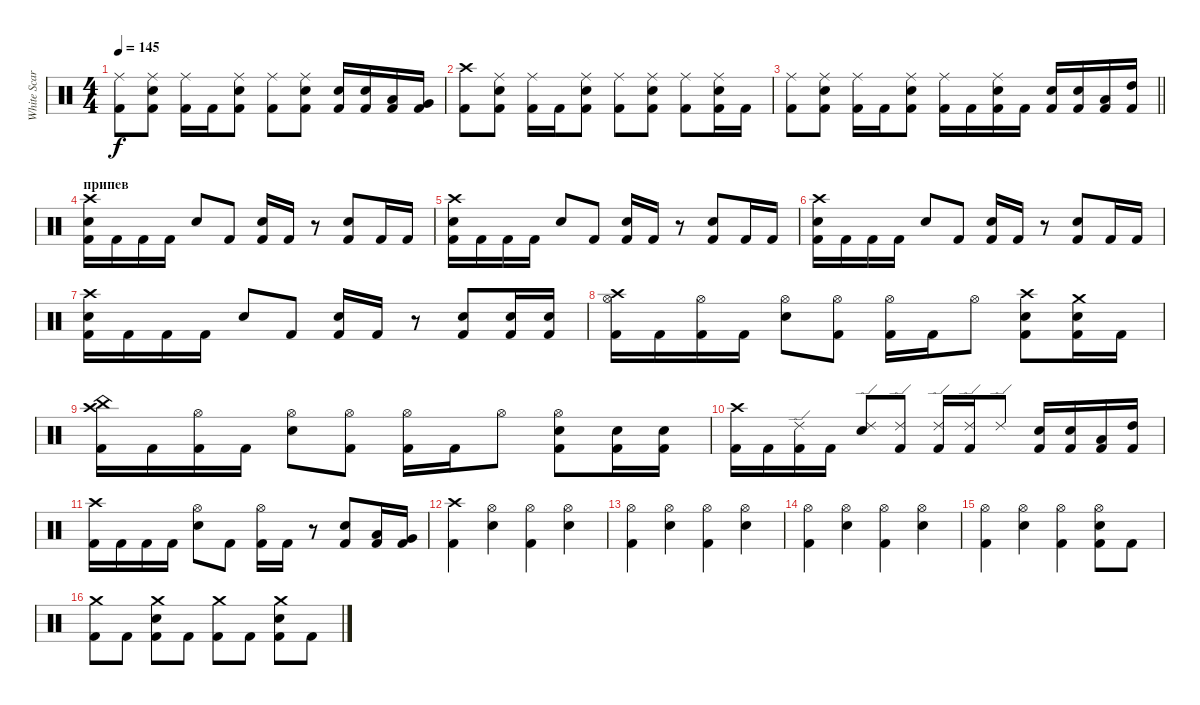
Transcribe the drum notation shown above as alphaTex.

\track ("White Scar" "White Scar") {instrument percussion}
\staff {score}
\articulation defaults
\ts (4 4)
\tempo 145
\clef neutral
\ks c
("Ride (middle)" "Kick (hit) 2").8{dy f} ("Ride (middle)" "Snare (hit) 2" "Kick (hit) 2").8 ("Ride (middle)" "Kick (hit) 2").16 "Kick (hit) 2".16 ("Ride (middle)" "Snare (hit) 2" "Kick (hit) 2").8 ("Ride (middle)" "Kick (hit) 2").8 ("Ride (middle)" "Snare (hit) 2" "Kick (hit) 2").8 ("Snare (hit) 2" "Kick (hit) 2").16 ("Snare (hit) 2" "Kick (hit) 2").16 ("Low Tom (hit)" "Kick (hit) 2").16 ("Very Low Tom (hit)" "Kick (hit) 2").16 |
("Crash high (hit)" "Kick (hit) 2").8 ("Ride (middle)" "Snare (hit) 2" "Kick (hit) 2").8 ("Ride (middle)" "Kick (hit) 2").16 "Kick (hit) 2".16 ("Ride (middle)" "Snare (hit) 2" "Kick (hit) 2").8 ("Ride (middle)" "Kick (hit) 2").8 ("Ride (middle)" "Snare (hit) 2" "Kick (hit) 2").8 ("Ride (middle)" "Kick (hit) 2").8 ("Ride (middle)" "Snare (hit) 2" "Kick (hit) 2").16 "Kick (hit) 2".16 |
\barLineRight lightlight
("Ride (middle)" "Kick (hit) 2").8 ("Ride (middle)" "Snare (hit) 2" "Kick (hit) 2").8 ("Ride (middle)" "Kick (hit) 2").16 "Kick (hit) 2".16 ("Ride (middle)" "Snare (hit) 2" "Kick (hit) 2").8 ("Ride (middle)" "Kick (hit) 2").16 "Kick (hit) 2".16 ("Ride (middle)" "Snare (hit) 2" "Kick (hit) 2").16 "Kick (hit) 2".16 ("Snare (hit) 2" "Kick (hit) 2").16 ("Snare (hit) 2" "Kick (hit) 2").16 ("Low Tom (hit)" "Kick (hit) 2").16 ("High Tom (hit)" "Kick (hit) 2").16 |
\section ("" "припев")
("Crash high (hit)" "Snare (hit) 2" "Kick (hit) 2").16 "Kick (hit) 2".16 "Kick (hit) 2".16 "Kick (hit) 2".16 "Snare (hit) 2".8 "Kick (hit) 2".8 ("Snare (hit) 2" "Kick (hit) 2").16 "Kick (hit) 2".16 r.8 ("Snare (hit) 2" "Kick (hit) 2").8 "Kick (hit) 2".16 "Kick (hit) 2".16 |
("Crash high (hit)" "Snare (hit) 2" "Kick (hit) 2").16 "Kick (hit) 2".16 "Kick (hit) 2".16 "Kick (hit) 2".16 "Snare (hit) 2".8 "Kick (hit) 2".8 ("Snare (hit) 2" "Kick (hit) 2").16 "Kick (hit) 2".16 r.8 ("Snare (hit) 2" "Kick (hit) 2").8 "Kick (hit) 2".16 "Kick (hit) 2".16 |
("Crash high (hit)" "Snare (hit) 2" "Kick (hit) 2").16 "Kick (hit) 2".16 "Kick (hit) 2".16 "Kick (hit) 2".16 "Snare (hit) 2".8 "Kick (hit) 2".8 ("Snare (hit) 2" "Kick (hit) 2").16 "Kick (hit) 2".16 r.8 ("Snare (hit) 2" "Kick (hit) 2").8 "Kick (hit) 2".16 "Kick (hit) 2".16 |
("Crash high (hit)" "Snare (hit) 2" "Kick (hit) 2").16 "Kick (hit) 2".16 "Kick (hit) 2".16 "Kick (hit) 2".16 "Snare (hit) 2".8 "Kick (hit) 2".8 ("Snare (hit) 2" "Kick (hit) 2").16 "Kick (hit) 2".16 r.8 ("Snare (hit) 2" "Kick (hit) 2").8 ("Snare (hit) 2" "Kick (hit) 2").16 ("Snare (hit) 2" "Kick (hit) 2").16 |
("Crash high (hit)" "Hi-Hat (open)" "Kick (hit) 2").16 "Kick (hit) 2".16 ("Hi-Hat (open)" "Kick (hit) 2").16 "Kick (hit) 2".16 ("Snare (hit) 2" "Hi-Hat (open)").8 ("Hi-Hat (open)" "Kick (hit) 2").8 ("Hi-Hat (open)" "Kick (hit) 2").16 "Kick (hit) 2".16 "Hi-Hat (open)".8 ("Snare (hit) 2" "Crash high (hit)" "Kick (hit) 2").8 ("Snare (hit) 2" "Crash medium (hit)" "Kick (hit) 2").16 "Kick (hit) 2".16 |
("Crash high (hit)" "China (hit)" "Kick (hit) 2").16 "Kick (hit) 2".16 ("Hi-Hat (open)" "Kick (hit) 2").16 "Kick (hit) 2".16 ("Snare (hit) 2" "Hi-Hat (open)").8 ("Hi-Hat (open)" "Kick (hit) 2").8 ("Hi-Hat (open)" "Kick (hit) 2").16 "Kick (hit) 2".16 "Hi-Hat (open)".8 ("Snare (hit) 2" "Hi-Hat (open)" "Kick (hit) 2").8 ("Snare (hit) 2" "Kick (hit) 2").16 ("Snare (hit) 2" "Kick (hit) 2").16 |
("Crash high (hit)" "Kick (hit) 2").16 "Kick (hit) 2".16 ("Ride (edge) 2" "Kick (hit) 2").16 "Kick (hit) 2".16 ("Snare (hit) 2" "Ride (edge) 2").8 ("Ride (edge) 2" "Kick (hit) 2").8 ("Ride (edge) 2" "Kick (hit) 2").16 ("Ride (edge) 2" "Kick (hit) 2").16 "Ride (edge) 2".8 ("Snare (hit) 2" "Kick (hit) 2").16 ("Snare (hit) 2" "Kick (hit) 2").16 ("Low Tom (hit)" "Kick (hit) 2").16 ("High Tom (hit)" "Kick (hit) 2").16 |
("Crash high (hit)" "Kick (hit) 2").16 "Kick (hit) 2".16 "Kick (hit) 2".16 "Kick (hit) 2".16 ("Snare (hit) 2" "Hi-Hat (open)").8 "Kick (hit) 2".8 ("Hi-Hat (open)" "Kick (hit) 2").16 "Kick (hit) 2".16 r.8 ("Snare (hit) 2" "Kick (hit) 2").8 ("Low Tom (hit)" "Kick (hit) 2").16 ("Very Low Tom (hit)" "Kick (hit) 2").16 |
("Crash high (hit)" "Kick (hit) 2").4 ("Hi-Hat (open)" "Snare (hit) 2").4 ("Hi-Hat (open)" "Kick (hit) 2").4 ("Hi-Hat (open)" "Snare (hit) 2").4 |
("Hi-Hat (open)" "Kick (hit) 2").4 ("Hi-Hat (open)" "Snare (hit) 2").4 ("Hi-Hat (open)" "Kick (hit) 2").4 ("Hi-Hat (open)" "Snare (hit) 2").4 |
("Hi-Hat (open)" "Kick (hit) 2").4 ("Hi-Hat (open)" "Snare (hit) 2").4 ("Hi-Hat (open)" "Kick (hit) 2").4 ("Hi-Hat (open)" "Snare (hit) 2").4 |
("Hi-Hat (open)" "Kick (hit) 2").4 ("Hi-Hat (open)" "Snare (hit) 2").4 ("Hi-Hat (open)" "Kick (hit) 2").4 ("Hi-Hat (open)" "Snare (hit) 2" "Kick (hit) 2").8 "Kick (hit) 2".8 |
("Crash medium (hit)" "Kick (hit) 2").8 "Kick (hit) 2".8 ("Snare (hit) 2" "Crash medium (hit)" "Kick (hit) 2").8 "Kick (hit) 2".8 ("Crash medium (hit)" "Kick (hit) 2").8 "Kick (hit) 2".8 ("Snare (hit) 2" "Crash medium (hit)" "Kick (hit) 2").8 "Kick (hit) 2".8
